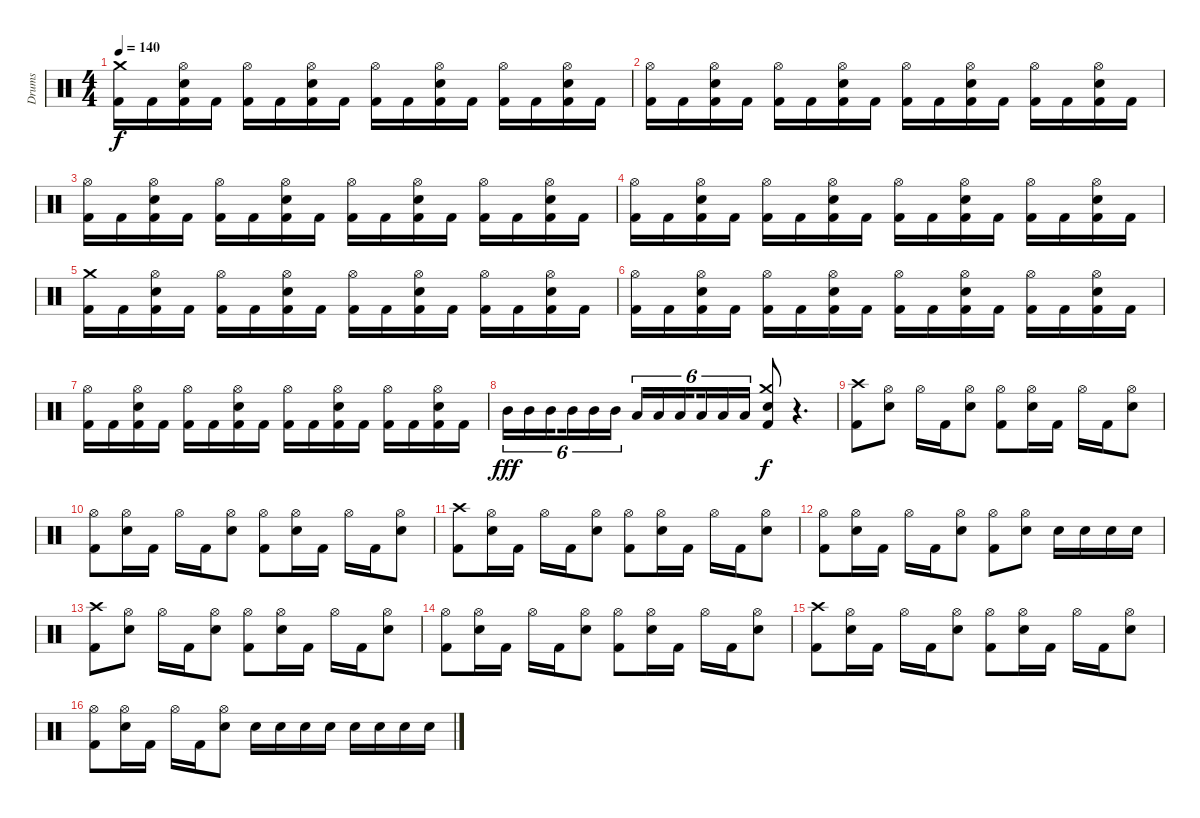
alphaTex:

\track ("Drums" "Drums") {instrument percussion}
\staff {score}
\articulation defaults
\ts (4 4)
\tempo 140
\clef neutral
\ks c
("Kick (hit) 2" "Crash medium (hit)").16{dy f} "Kick (hit) 2".16 ("Snare (hit) 2" "Hi-Hat (open)" "Kick (hit) 2").16 "Kick (hit) 2".16 ("Kick (hit) 2" "Hi-Hat (open)").16 "Kick (hit) 2".16 ("Snare (hit) 2" "Hi-Hat (open)" "Kick (hit) 2").16 "Kick (hit) 2".16 ("Kick (hit) 2" "Hi-Hat (open)").16 "Kick (hit) 2".16 ("Snare (hit) 2" "Kick (hit) 2" "Hi-Hat (open)").16 "Kick (hit) 2".16 ("Hi-Hat (open)" "Kick (hit) 2").16 "Kick (hit) 2".16 ("Snare (hit) 2" "Kick (hit) 2" "Hi-Hat (open)").16 "Kick (hit) 2".16 |
("Hi-Hat (open)" "Kick (hit) 2").16 "Kick (hit) 2".16 ("Hi-Hat (open)" "Kick (hit) 2" "Snare (hit) 2").16 "Kick (hit) 2".16 ("Hi-Hat (open)" "Kick (hit) 2").16 "Kick (hit) 2".16 ("Hi-Hat (open)" "Kick (hit) 2" "Snare (hit) 2").16 "Kick (hit) 2".16 ("Hi-Hat (open)" "Kick (hit) 2").16 "Kick (hit) 2".16 ("Snare (hit) 2" "Kick (hit) 2" "Hi-Hat (open)").16 "Kick (hit) 2".16 ("Hi-Hat (open)" "Kick (hit) 2").16 "Kick (hit) 2".16 ("Hi-Hat (open)" "Kick (hit) 2" "Snare (hit) 2").16 "Kick (hit) 2".16 |
("Hi-Hat (open)" "Kick (hit) 2").16 "Kick (hit) 2".16 ("Hi-Hat (open)" "Kick (hit) 2" "Snare (hit) 2").16 "Kick (hit) 2".16 ("Hi-Hat (open)" "Kick (hit) 2").16 "Kick (hit) 2".16 ("Hi-Hat (open)" "Kick (hit) 2" "Snare (hit) 2").16 "Kick (hit) 2".16 ("Hi-Hat (open)" "Kick (hit) 2").16 "Kick (hit) 2".16 ("Snare (hit) 2" "Kick (hit) 2" "Hi-Hat (open)").16 "Kick (hit) 2".16 ("Hi-Hat (open)" "Kick (hit) 2").16 "Kick (hit) 2".16 ("Hi-Hat (open)" "Kick (hit) 2" "Snare (hit) 2").16 "Kick (hit) 2".16 |
("Hi-Hat (open)" "Kick (hit) 2").16 "Kick (hit) 2".16 ("Hi-Hat (open)" "Kick (hit) 2" "Snare (hit) 2").16 "Kick (hit) 2".16 ("Hi-Hat (open)" "Kick (hit) 2").16 "Kick (hit) 2".16 ("Hi-Hat (open)" "Kick (hit) 2" "Snare (hit) 2").16 "Kick (hit) 2".16 ("Hi-Hat (open)" "Kick (hit) 2").16 "Kick (hit) 2".16 ("Snare (hit) 2" "Kick (hit) 2" "Hi-Hat (open)").16 "Kick (hit) 2".16 ("Hi-Hat (open)" "Kick (hit) 2").16 "Kick (hit) 2".16 ("Hi-Hat (open)" "Kick (hit) 2" "Snare (hit) 2").16 "Kick (hit) 2".16 |
("Kick (hit) 2" "Crash medium (hit)").16 "Kick (hit) 2".16 ("Snare (hit) 2" "Hi-Hat (open)" "Kick (hit) 2").16 "Kick (hit) 2".16 ("Kick (hit) 2" "Hi-Hat (open)").16 "Kick (hit) 2".16 ("Snare (hit) 2" "Hi-Hat (open)" "Kick (hit) 2").16 "Kick (hit) 2".16 ("Kick (hit) 2" "Hi-Hat (open)").16 "Kick (hit) 2".16 ("Snare (hit) 2" "Kick (hit) 2" "Hi-Hat (open)").16 "Kick (hit) 2".16 ("Hi-Hat (open)" "Kick (hit) 2").16 "Kick (hit) 2".16 ("Snare (hit) 2" "Kick (hit) 2" "Hi-Hat (open)").16 "Kick (hit) 2".16 |
("Hi-Hat (open)" "Kick (hit) 2").16 "Kick (hit) 2".16 ("Hi-Hat (open)" "Kick (hit) 2" "Snare (hit) 2").16 "Kick (hit) 2".16 ("Hi-Hat (open)" "Kick (hit) 2").16 "Kick (hit) 2".16 ("Hi-Hat (open)" "Kick (hit) 2" "Snare (hit) 2").16 "Kick (hit) 2".16 ("Hi-Hat (open)" "Kick (hit) 2").16 "Kick (hit) 2".16 ("Snare (hit) 2" "Kick (hit) 2" "Hi-Hat (open)").16 "Kick (hit) 2".16 ("Hi-Hat (open)" "Kick (hit) 2").16 "Kick (hit) 2".16 ("Hi-Hat (open)" "Kick (hit) 2" "Snare (hit) 2").16 "Kick (hit) 2".16 |
("Hi-Hat (open)" "Kick (hit) 2").16 "Kick (hit) 2".16 ("Hi-Hat (open)" "Kick (hit) 2" "Snare (hit) 2").16 "Kick (hit) 2".16 ("Hi-Hat (open)" "Kick (hit) 2").16 "Kick (hit) 2".16 ("Hi-Hat (open)" "Kick (hit) 2" "Snare (hit) 2").16 "Kick (hit) 2".16 ("Hi-Hat (open)" "Kick (hit) 2").16 "Kick (hit) 2".16 ("Snare (hit) 2" "Kick (hit) 2" "Hi-Hat (open)").16 "Kick (hit) 2".16 ("Hi-Hat (open)" "Kick (hit) 2").16 "Kick (hit) 2".16 ("Hi-Hat (open)" "Kick (hit) 2" "Snare (hit) 2").16 "Kick (hit) 2".16 |
"Mid Tom (hit)".16{tu (6 4) dy fff} "Mid Tom (hit)".16{tu (6 4)} "Mid Tom (hit)".16{tu (6 4) beam splitsecondary} "Mid Tom (hit)".16{tu (6 4)} "Mid Tom (hit)".16{tu (6 4)} "Mid Tom (hit)".16{tu (6 4)} "Low Tom (hit)".16{tu (6 4)} "Low Tom (hit)".16{tu (6 4)} "Low Tom (hit)".16{tu (6 4) beam splitsecondary} "Low Tom (hit)".16{tu (6 4)} "Low Tom (hit)".16{tu (6 4)} "Low Tom (hit)".16{tu (6 4)} ("Crash medium (hit)" "Snare (hit) 2" "Kick (hit) 2").8{dy f} r.4{d} |
("Kick (hit) 2" "Crash high (hit)").8 ("Snare (hit) 2" "Hi-Hat (open)").8 "Hi-Hat (open)".16 "Kick (hit) 2".16 ("Snare (hit) 2" "Hi-Hat (open)").8 ("Kick (hit) 2" "Hi-Hat (open)").8 ("Hi-Hat (open)" "Snare (hit) 2").16 "Kick (hit) 2".16 "Hi-Hat (open)".16 "Kick (hit) 2".16 ("Hi-Hat (open)" "Snare (hit) 2").8 |
("Hi-Hat (open)" "Kick (hit) 2").8 ("Hi-Hat (open)" "Snare (hit) 2").16 "Kick (hit) 2".16 "Hi-Hat (open)".16 "Kick (hit) 2".16 ("Hi-Hat (open)" "Snare (hit) 2").8 ("Hi-Hat (open)" "Kick (hit) 2").8 ("Snare (hit) 2" "Hi-Hat (open)").16 "Kick (hit) 2".16 "Hi-Hat (open)".16 "Kick (hit) 2".16 ("Snare (hit) 2" "Hi-Hat (open)").8 |
("Kick (hit) 2" "Crash high (hit)").8 ("Hi-Hat (open)" "Snare (hit) 2").16 "Kick (hit) 2".16 "Hi-Hat (open)".16 "Kick (hit) 2".16 ("Hi-Hat (open)" "Snare (hit) 2").8 ("Kick (hit) 2" "Hi-Hat (open)").8 ("Snare (hit) 2" "Hi-Hat (open)").16 "Kick (hit) 2".16 "Hi-Hat (open)".16 "Kick (hit) 2".16 ("Snare (hit) 2" "Hi-Hat (open)").8 |
("Kick (hit) 2" "Hi-Hat (open)").8 ("Snare (hit) 2" "Hi-Hat (open)").16 "Kick (hit) 2".16 "Hi-Hat (open)".16 "Kick (hit) 2".16 ("Hi-Hat (open)" "Snare (hit) 2").8 ("Hi-Hat (open)" "Kick (hit) 2").8 ("Hi-Hat (open)" "Snare (hit) 2").8 "Snare (hit) 2".16 "Snare (hit) 2".16 "Snare (hit) 2".16 "Snare (hit) 2".16 |
("Kick (hit) 2" "Crash high (hit)").8 ("Snare (hit) 2" "Hi-Hat (open)").8 "Hi-Hat (open)".16 "Kick (hit) 2".16 ("Snare (hit) 2" "Hi-Hat (open)").8 ("Kick (hit) 2" "Hi-Hat (open)").8 ("Hi-Hat (open)" "Snare (hit) 2").16 "Kick (hit) 2".16 "Hi-Hat (open)".16 "Kick (hit) 2".16 ("Hi-Hat (open)" "Snare (hit) 2").8 |
("Hi-Hat (open)" "Kick (hit) 2").8 ("Hi-Hat (open)" "Snare (hit) 2").16 "Kick (hit) 2".16 "Hi-Hat (open)".16 "Kick (hit) 2".16 ("Hi-Hat (open)" "Snare (hit) 2").8 ("Hi-Hat (open)" "Kick (hit) 2").8 ("Snare (hit) 2" "Hi-Hat (open)").16 "Kick (hit) 2".16 "Hi-Hat (open)".16 "Kick (hit) 2".16 ("Snare (hit) 2" "Hi-Hat (open)").8 |
("Kick (hit) 2" "Crash high (hit)").8 ("Hi-Hat (open)" "Snare (hit) 2").16 "Kick (hit) 2".16 "Hi-Hat (open)".16 "Kick (hit) 2".16 ("Hi-Hat (open)" "Snare (hit) 2").8 ("Kick (hit) 2" "Hi-Hat (open)").8 ("Snare (hit) 2" "Hi-Hat (open)").16 "Kick (hit) 2".16 "Hi-Hat (open)".16 "Kick (hit) 2".16 ("Snare (hit) 2" "Hi-Hat (open)").8 |
("Kick (hit) 2" "Hi-Hat (open)").8 ("Snare (hit) 2" "Hi-Hat (open)").16 "Kick (hit) 2".16 "Hi-Hat (open)".16 "Kick (hit) 2".16 ("Hi-Hat (open)" "Snare (hit) 2").8 "Snare (hit) 2".16 "Snare (hit) 2".16 "Snare (hit) 2".16 "Snare (hit) 2".16 "Snare (hit) 2".16 "Snare (hit) 2".16 "Snare (hit) 2".16 "Snare (hit) 2".16
